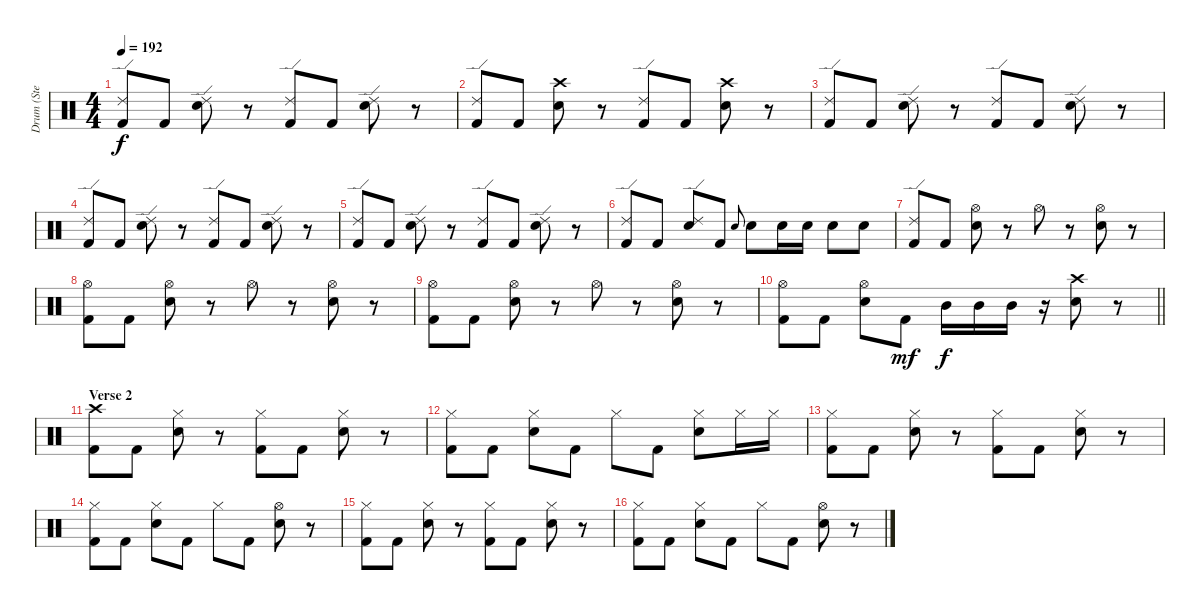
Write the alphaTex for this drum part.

\track (" Drum (Steve O)" " Drum (Ste") {instrument percussion}
\staff {score}
\articulation defaults
\ts (4 4)
\tempo 192
\clef neutral
\ks c
("Ride (edge) 2" "Kick (hit) 2").8{dy f} "Kick (hit) 2".8 ("Ride (edge) 2" "Snare (hit) 2").8 r.8 ("Ride (edge) 2" "Kick (hit) 2").8 "Kick (hit) 2".8 ("Ride (edge) 2" "Snare (hit) 2").8 r.8 |
("Ride (edge) 2" "Kick (hit) 2").8 "Kick (hit) 2".8 ("Crash high (hit)" "Snare (hit) 2").8 r.8 ("Ride (edge) 2" "Kick (hit) 2").8 "Kick (hit) 2".8 ("Crash high (hit)" "Snare (hit) 2").8 r.8 |
("Ride (edge) 2" "Kick (hit) 2").8 "Kick (hit) 2".8 ("Ride (edge) 2" "Snare (hit) 2").8 r.8 ("Ride (edge) 2" "Kick (hit) 2").8 "Kick (hit) 2".8 ("Ride (edge) 2" "Snare (hit) 2").8 r.8 |
("Ride (edge) 2" "Kick (hit) 2").8 "Kick (hit) 2".8 ("Ride (edge) 2" "Snare (hit) 2").8 r.8 ("Ride (edge) 2" "Kick (hit) 2").8 "Kick (hit) 2".8 ("Ride (edge) 2" "Snare (hit) 2").8 r.8 |
("Ride (edge) 2" "Kick (hit) 2").8 "Kick (hit) 2".8 ("Ride (edge) 2" "Snare (hit) 2").8 r.8 ("Ride (edge) 2" "Kick (hit) 2").8 "Kick (hit) 2".8 ("Ride (edge) 2" "Snare (hit) 2").8 r.8 |
("Ride (edge) 2" "Kick (hit) 2").8 "Kick (hit) 2".8 ("Ride (edge) 2" "Snare (hit) 2").8 "Kick (hit) 2".8 "Snare (hit) 2".8{gr onbeat} "Snare (hit) 2".8 "Snare (hit) 2".16 "Snare (hit) 2".16 "Snare (hit) 2".8 "Snare (hit) 2".8 |
("Ride (edge) 2" "Kick (hit) 2").8 "Kick (hit) 2".8 ("Hi-Hat (open)" "Snare (hit) 2").8 r.8 "Hi-Hat (open)".8 r.8 ("Hi-Hat (open)" "Snare (hit) 2").8 r.8 |
("Hi-Hat (open)" "Kick (hit) 2").8 "Kick (hit) 2".8 ("Hi-Hat (open)" "Snare (hit) 2").8 r.8 "Hi-Hat (open)".8 r.8 ("Hi-Hat (open)" "Snare (hit) 2").8 r.8 |
("Hi-Hat (open)" "Kick (hit) 2").8 "Kick (hit) 2".8 ("Hi-Hat (open)" "Snare (hit) 2").8 r.8 "Hi-Hat (open)".8 r.8 ("Hi-Hat (open)" "Snare (hit) 2").8 r.8 |
\barLineRight lightlight
("Hi-Hat (open)" "Kick (hit) 2").8 "Kick (hit) 2".8 ("Hi-Hat (open)" "Snare (hit) 2").8 "Kick (hit) 2".8{dy mf} "Mid Tom (hit)".16{dy f} "Mid Tom (hit)".16 "Mid Tom (hit)".16 r.16 ("Crash high (hit)" "Snare (hit) 2").8 r.8 |
\section ("" "Verse 2")
("Crash high (hit)" "Kick (hit) 2").8 "Kick (hit) 2".8 ("Hi-Hat (closed)" "Snare (hit) 2").8 r.8 ("Hi-Hat (closed)" "Kick (hit) 2").8 "Kick (hit) 2".8 ("Hi-Hat (closed)" "Snare (hit) 2").8 r.8 |
("Hi-Hat (closed)" "Kick (hit) 2").8 "Kick (hit) 2".8 ("Hi-Hat (closed)" "Snare (hit) 2").8 "Kick (hit) 2".8 "Hi-Hat (closed)".8 "Kick (hit) 2".8 ("Hi-Hat (closed)" "Snare (hit) 2").8 "Hi-Hat (closed)".16 "Hi-Hat (closed)".16 |
("Hi-Hat (closed)" "Kick (hit) 2").8 "Kick (hit) 2".8 ("Hi-Hat (closed)" "Snare (hit) 2").8 r.8 ("Hi-Hat (closed)" "Kick (hit) 2").8 "Kick (hit) 2".8 ("Hi-Hat (closed)" "Snare (hit) 2").8 r.8 |
("Hi-Hat (closed)" "Kick (hit) 2").8 "Kick (hit) 2".8 ("Hi-Hat (closed)" "Snare (hit) 2").8 "Kick (hit) 2".8 "Hi-Hat (closed)".8 "Kick (hit) 2".8 ("Hi-Hat (open)" "Snare (hit) 2").8 r.8 |
("Hi-Hat (closed)" "Kick (hit) 2").8 "Kick (hit) 2".8 ("Hi-Hat (closed)" "Snare (hit) 2").8 r.8 ("Hi-Hat (closed)" "Kick (hit) 2").8 "Kick (hit) 2".8 ("Hi-Hat (closed)" "Snare (hit) 2").8 r.8 |
("Hi-Hat (closed)" "Kick (hit) 2").8 "Kick (hit) 2".8 ("Hi-Hat (closed)" "Snare (hit) 2").8 "Kick (hit) 2".8 "Hi-Hat (closed)".8 "Kick (hit) 2".8 ("Hi-Hat (open)" "Snare (hit) 2").8 r.8
